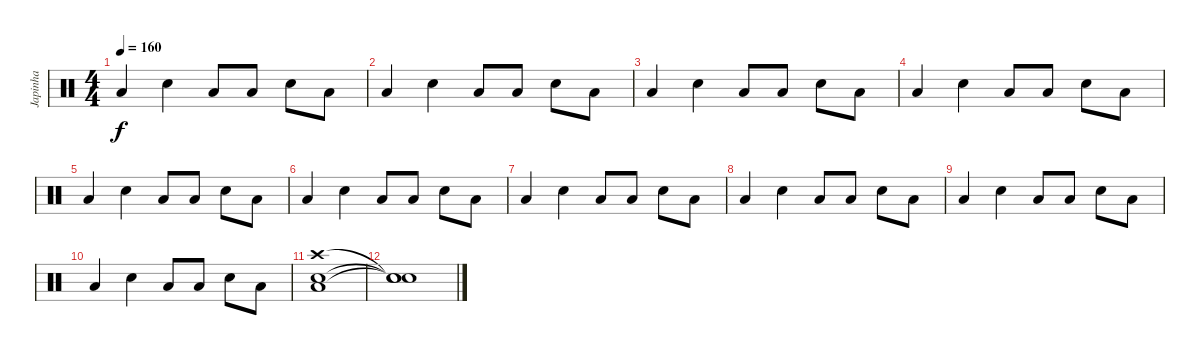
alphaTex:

\track ("Japinha" "Japinha") {instrument percussion}
\staff {score}
\articulation defaults
\ts (4 4)
\tempo 160
\clef neutral
\ks c "Low Tom (hit)".4{dy f} "Snare (hit) 2".4 "Low Tom (hit)".8 "Low Tom (hit)".8 "Snare (hit) 2".8 "Low Tom (hit)".8
|
"Low Tom (hit)".4 "Snare (hit) 2".4 "Low Tom (hit)".8 "Low Tom (hit)".8 "Snare (hit) 2".8 "Low Tom (hit)".8 |
"Low Tom (hit)".4 "Snare (hit) 2".4 "Low Tom (hit)".8 "Low Tom (hit)".8 "Snare (hit) 2".8 "Low Tom (hit)".8 |
"Low Tom (hit)".4 "Snare (hit) 2".4 "Low Tom (hit)".8 "Low Tom (hit)".8 "Snare (hit) 2".8 "Low Tom (hit)".8 |
"Low Tom (hit)".4 "Snare (hit) 2".4 "Low Tom (hit)".8 "Low Tom (hit)".8 "Snare (hit) 2".8 "Low Tom (hit)".8 |
"Low Tom (hit)".4 "Snare (hit) 2".4 "Low Tom (hit)".8 "Low Tom (hit)".8 "Snare (hit) 2".8 "Low Tom (hit)".8 |
"Low Tom (hit)".4 "Snare (hit) 2".4 "Low Tom (hit)".8 "Low Tom (hit)".8 "Snare (hit) 2".8 "Low Tom (hit)".8 |
"Low Tom (hit)".4 "Snare (hit) 2".4 "Low Tom (hit)".8 "Low Tom (hit)".8 "Snare (hit) 2".8 "Low Tom (hit)".8 |
"Low Tom (hit)".4 "Snare (hit) 2".4 "Low Tom (hit)".8 "Low Tom (hit)".8 "Snare (hit) 2".8 "Low Tom (hit)".8 |
"Low Tom (hit)".4 "Snare (hit) 2".4 "Low Tom (hit)".8 "Low Tom (hit)".8 "Snare (hit) 2".8 "Low Tom (hit)".8 |
("Low Tom (hit)" "Crash high (hit)" "Snare (hit) 2").1 |
("Snare (hit)"{t} "Snare (hit)"{t} "Snare (hit)"{t}).1
